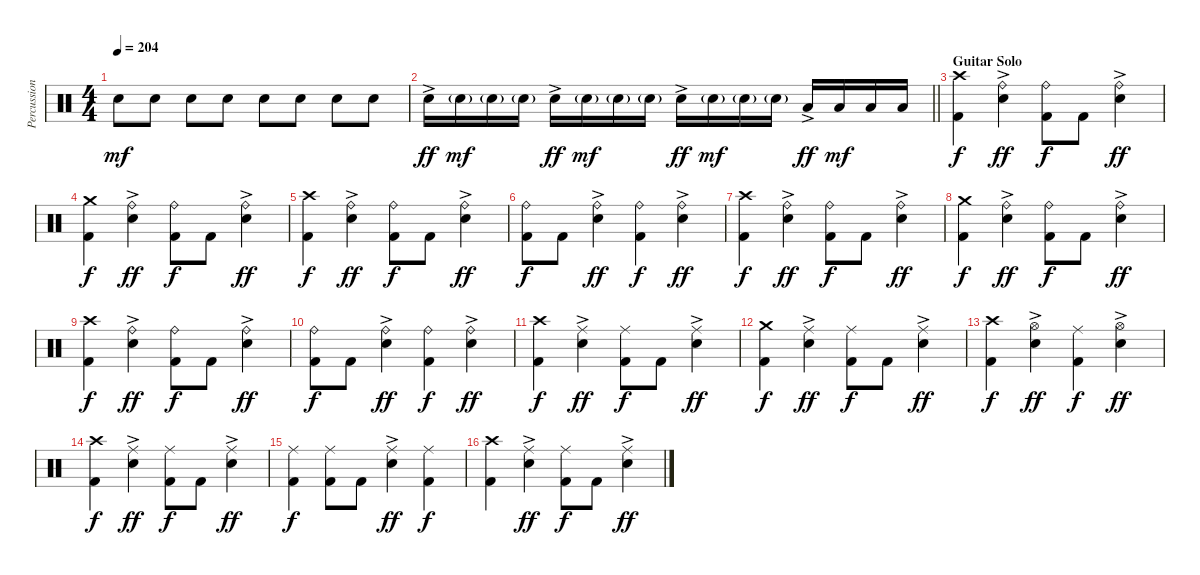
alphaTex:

\track ("Percussion" "Percussion") {instrument percussion}
\staff {score}
\articulation defaults
\ts (4 4)
\tempo 204
\clef neutral
\ks c "Electric Snare (hit)".8{dy mf} "Electric Snare (hit)".8 "Electric Snare (hit)".8 "Electric Snare (hit)".8 "Electric Snare (hit)".8 "Electric Snare (hit)".8 "Electric Snare (hit)".8 "Electric Snare (hit)".8
|
\barLineRight lightlight "Electric Snare (hit)"{ac}.16{dy ff} "Electric Snare (hit)"{g}.16{dy mf} "Electric Snare (hit)"{g}.16 "Electric Snare (hit)"{g}.16 "Electric Snare (hit)"{ac}.16{dy ff} "Electric Snare (hit)"{g}.16{dy mf} "Electric Snare (hit)"{g}.16 "Electric Snare (hit)"{g}.16 "Electric Snare (hit)"{ac}.16{dy ff} "Electric Snare (hit)"{g}.16{dy mf} "Electric Snare (hit)"{g}.16 "Electric Snare (hit)"{g}.16 "Low Tom (hit)"{ac}.16{dy ff} "Low Tom (hit)".16{dy mf} "Low Tom (hit)".16 "Low Tom (hit)".16
|
\section ("" "Guitar Solo")
("Crash high (hit)" "Kick (hit) 2").4{dy f} ("Ride (bell)" "Electric Snare (hit)"{ac}).4{dy ff} ("Ride (bell)" "Kick (hit) 2").8{dy f} "Kick (hit) 2".8 ("Ride (bell)" "Electric Snare (hit)"{ac}).4{dy ff} |
("Crash medium (hit)" "Kick (hit) 2").4{dy f} ("Ride (bell)" "Electric Snare (hit)"{ac}).4{dy ff} ("Ride (bell)" "Kick (hit) 2").8{dy f} "Kick (hit) 2".8 ("Ride (bell)" "Electric Snare (hit)"{ac}).4{dy ff} |
("Crash high (hit)" "Kick (hit) 2").4{dy f} ("Ride (bell)" "Electric Snare (hit)"{ac}).4{dy ff} ("Ride (bell)" "Kick (hit) 2").8{dy f} "Kick (hit) 2".8 ("Ride (bell)" "Electric Snare (hit)"{ac}).4{dy ff} |
("Ride (bell)" "Kick (hit) 2").8{dy f} "Kick (hit) 2".8 ("Ride (bell)" "Electric Snare (hit)"{ac}).4{dy ff} ("Ride (bell)" "Kick (hit) 2").4{dy f} ("Ride (bell)" "Electric Snare (hit)"{ac}).4{dy ff} |
("Crash high (hit)" "Kick (hit) 2").4{dy f} ("Ride (bell)" "Electric Snare (hit)"{ac}).4{dy ff} ("Ride (bell)" "Kick (hit) 2").8{dy f} "Kick (hit) 2".8 ("Ride (bell)" "Electric Snare (hit)"{ac}).4{dy ff} |
("Crash medium (hit)" "Kick (hit) 2").4{dy f} ("Ride (bell)" "Electric Snare (hit)"{ac}).4{dy ff} ("Ride (bell)" "Kick (hit) 2").8{dy f} "Kick (hit) 2".8 ("Ride (bell)" "Electric Snare (hit)"{ac}).4{dy ff} |
("Crash high (hit)" "Kick (hit) 2").4{dy f} ("Ride (bell)" "Electric Snare (hit)"{ac}).4{dy ff} ("Ride (bell)" "Kick (hit) 2").8{dy f} "Kick (hit) 2".8 ("Ride (bell)" "Electric Snare (hit)"{ac}).4{dy ff} |
("Ride (bell)" "Kick (hit) 2").8{dy f} "Kick (hit) 2".8 ("Ride (bell)" "Electric Snare (hit)"{ac}).4{dy ff} ("Ride (bell)" "Kick (hit) 2").4{dy f} ("Ride (bell)" "Electric Snare (hit)"{ac}).4{dy ff} |
("Crash high (hit)" "Kick (hit) 2").4{dy f} ("Ride (middle)" "Electric Snare (hit)"{ac}).4{dy ff} ("Ride (middle)" "Kick (hit) 2").8{dy f} "Kick (hit) 2".8 ("Ride (middle)" "Electric Snare (hit)"{ac}).4{dy ff} |
("Crash medium (hit)" "Kick (hit) 2").4{dy f} ("Ride (middle)" "Electric Snare (hit)"{ac}).4{dy ff} ("Ride (middle)" "Kick (hit) 2").8{dy f} "Kick (hit) 2".8 ("Ride (middle)" "Electric Snare (hit)"{ac}).4{dy ff} |
("Crash high (hit)" "Kick (hit) 2").4{dy f} ("Hi-Hat (open)" "Electric Snare (hit)"{ac}).4{dy ff} ("Ride (middle)" "Kick (hit) 2").4{dy f} ("Hi-Hat (open)" "Electric Snare (hit)"{ac}).4{dy ff} |
("Crash high (hit)" "Kick (hit) 2").4{dy f} ("Ride (middle)" "Electric Snare (hit)"{ac}).4{dy ff} ("Ride (middle)" "Kick (hit) 2").8{dy f} "Kick (hit) 2".8 ("Ride (middle)" "Electric Snare (hit)"{ac}).4{dy ff} |
("Ride (middle)" "Kick (hit) 2").4{dy f} ("Ride (middle)" "Kick (hit) 2").8 "Kick (hit) 2".8 ("Ride (middle)" "Electric Snare (hit)"{ac}).4{dy ff} ("Ride (middle)" "Kick (hit) 2").4{dy f} |
("Crash high (hit)" "Kick (hit) 2").4 ("Ride (middle)" "Electric Snare (hit)"{ac}).4{dy ff} ("Ride (middle)" "Kick (hit) 2").8{dy f} "Kick (hit) 2".8 ("Ride (middle)" "Electric Snare (hit)"{ac}).4{dy ff}
